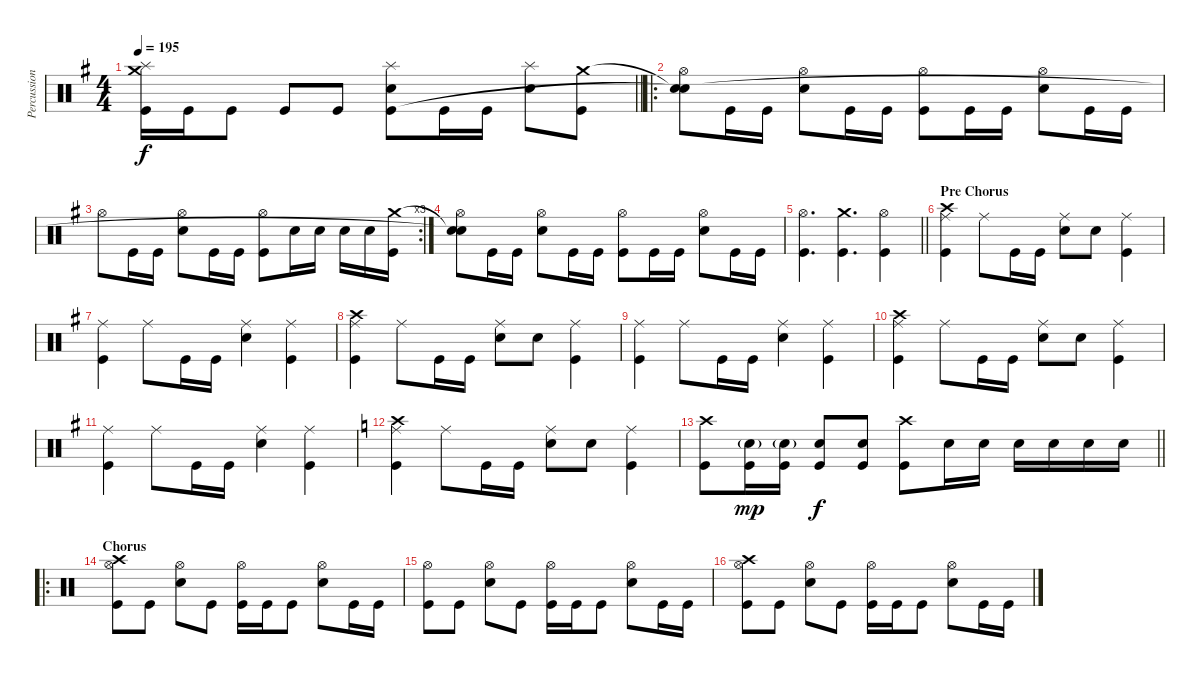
\track ("Percussion" "Percussion") {instrument percussion}
\staff {score}
\articulation defaults
\ts (4 4)
\tempo 195
\clef neutral
\barLineRight lightlight
\ks g
("Crash medium (hit)" "Splash (hit)" "Kick (hit)").16{dy f} "Kick (hit)".16 "Kick (hit)".8 "Kick (hit)".8 "Kick (hit)".8 ("Splash (hit)" "Electric Snare (hit)" "Kick (hit)").8 "Kick (hit)".16 "Kick (hit)".16 ("Splash (hit)" "Electric Snare (hit)").8 ("Crash medium (hit)" "Kick (hit)").8 |
\ro
("Snare (hit)"{t} "Hi-Hat (open)" "Snare (hit)"{t}).8 "Kick (hit)".16 "Kick (hit)".16 ("Hi-Hat (open)" "Electric Snare (hit)").8 "Kick (hit)".16 "Kick (hit)".16 ("Hi-Hat (open)" "Kick (hit)").8 "Kick (hit)".16 "Kick (hit)".16 ("Hi-Hat (open)" "Electric Snare (hit)").8 "Kick (hit)".16 "Kick (hit)".16 |
\rc 3 "Hi-Hat (open)".8 "Kick (hit)".16 "Kick (hit)".16
("Hi-Hat (open)" "Electric Snare (hit)").8 "Kick (hit)".16 "Kick (hit)".16 ("Hi-Hat (open)" "Kick (hit)").8 "Electric Snare (hit)".16 "Electric Snare (hit)".16 "Electric Snare (hit)".16 "Electric Snare (hit)".16 ("Crash medium (hit)" "Kick (hit)").16 |
("Snare (hit)"{t} "Hi-Hat (open)" "Snare (hit)"{t}).8 "Kick (hit)".16 "Kick (hit)".16 ("Hi-Hat (open)" "Electric Snare (hit)").8 "Kick (hit)".16 "Kick (hit)".16 ("Hi-Hat (open)" "Kick (hit)").8 "Kick (hit)".16 "Kick (hit)".16 ("Hi-Hat (open)" "Electric Snare (hit)").8 "Kick (hit)".16 "Kick (hit)".16 |
\barLineRight lightlight
("Hi-Hat (open)" "Kick (hit)").4{d} ("Crash medium (hit)" "Kick (hit)").4{d} ("Hi-Hat (open)" "Kick (hit)").4 |
\section ("" "Pre Chorus")
("Crash high (hit)" "Ride (middle)" "Kick (hit)").4 "Ride (middle)".8 "Kick (hit)".16 "Kick (hit)".16 ("Ride (middle)" "Electric Snare (hit)").8 "Electric Snare (hit)".8 ("Ride (middle)" "Kick (hit)").4 |
("Ride (middle)" "Kick (hit)").4 "Ride (middle)".8 "Kick (hit)".16 "Kick (hit)".16 ("Ride (middle)" "Electric Snare (hit)").4 ("Ride (middle)" "Kick (hit)").4 |
("Crash high (hit)" "Ride (middle)" "Kick (hit)").4 "Ride (middle)".8 "Kick (hit)".16 "Kick (hit)".16 ("Ride (middle)" "Electric Snare (hit)").8 "Electric Snare (hit)".8 ("Ride (middle)" "Kick (hit)").4 |
("Ride (middle)" "Kick (hit)").4 "Ride (middle)".8 "Kick (hit)".16 "Kick (hit)".16 ("Ride (middle)" "Electric Snare (hit)").4 ("Ride (middle)" "Kick (hit)").4 |
("Crash high (hit)" "Ride (middle)" "Kick (hit)").4 "Ride (middle)".8 "Kick (hit)".16 "Kick (hit)".16 ("Ride (middle)" "Electric Snare (hit)").8 "Electric Snare (hit)".8 ("Ride (middle)" "Kick (hit)").4 |
("Ride (middle)" "Kick (hit)").4 "Ride (middle)".8 "Kick (hit)".16 "Kick (hit)".16 ("Ride (middle)" "Electric Snare (hit)").4 ("Ride (middle)" "Kick (hit)").4 |
\ks c
("Crash high (hit)" "Ride (middle)" "Kick (hit)").4 "Ride (middle)".8 "Kick (hit)".16 "Kick (hit)".16 ("Ride (middle)" "Electric Snare (hit)").8 "Electric Snare (hit)".8 ("Ride (middle)" "Kick (hit)").4 |
\barLineRight lightlight
("Crash high (hit)" "Kick (hit)").8 ("Electric Snare (hit)"{g} "Kick (hit)").16{dy mp} ("Electric Snare (hit)"{g} "Kick (hit)").16 ("Electric Snare (hit)" "Kick (hit)").8{dy f} ("Electric Snare (hit)" "Kick (hit)").8 ("Crash high (hit)" "Kick (hit)").8 "Electric Snare (hit)".16 "Electric Snare (hit)".16 "Electric Snare (hit)".16 "Electric Snare (hit)".16 "Electric Snare (hit)".16 "Electric Snare (hit)".16 |
\ro
\section ("" "Chorus")
("Crash high (hit)" "Hi-Hat (open)" "Kick (hit)").8 "Kick (hit)".8 ("Hi-Hat (open)" "Electric Snare (hit)").8 "Kick (hit)".8 ("Hi-Hat (open)" "Kick (hit)").16 "Kick (hit)".16 "Kick (hit)".8 ("Hi-Hat (open)" "Electric Snare (hit)").8 "Kick (hit)".16 "Kick (hit)".16 |
("Hi-Hat (open)" "Kick (hit)").8 "Kick (hit)".8 ("Hi-Hat (open)" "Electric Snare (hit)").8 "Kick (hit)".8 ("Hi-Hat (open)" "Kick (hit)").16 "Kick (hit)".16 "Kick (hit)".8 ("Hi-Hat (open)" "Electric Snare (hit)").8 "Kick (hit)".16 "Kick (hit)".16 |
("Crash high (hit)" "Hi-Hat (open)" "Kick (hit)").8 "Kick (hit)".8 ("Hi-Hat (open)" "Electric Snare (hit)").8 "Kick (hit)".8 ("Hi-Hat (open)" "Kick (hit)").16 "Kick (hit)".16 "Kick (hit)".8 ("Hi-Hat (open)" "Electric Snare (hit)").8 "Kick (hit)".16 "Kick (hit)".16
